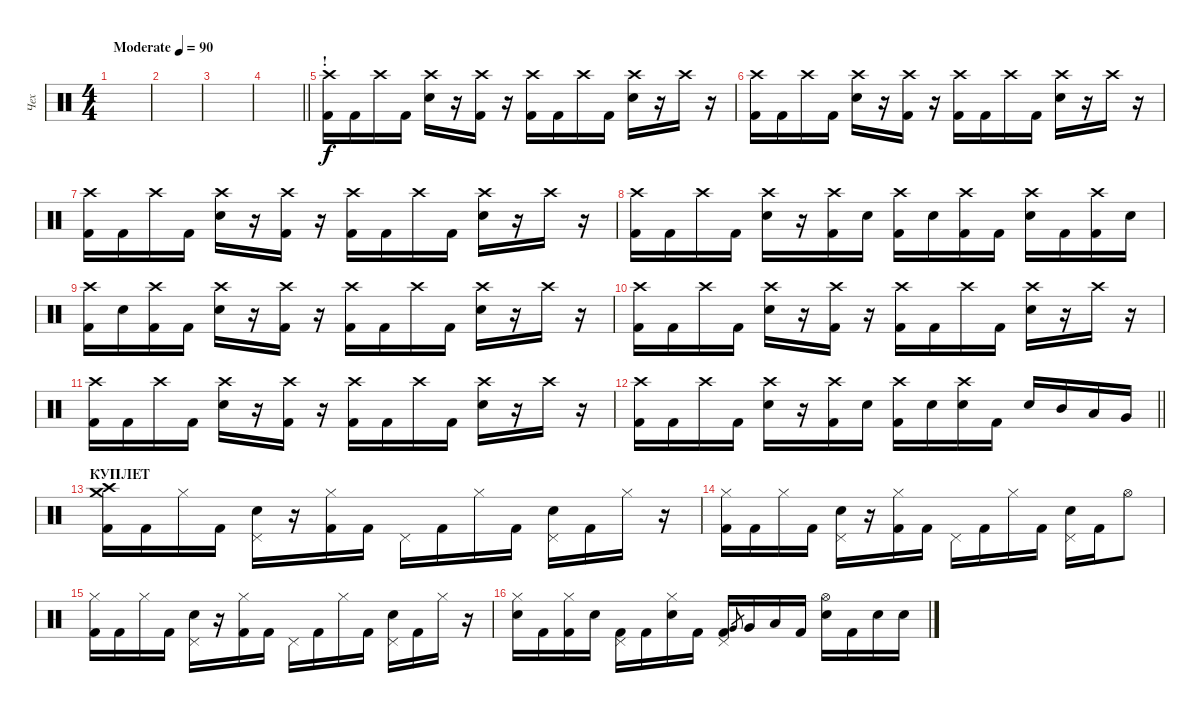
\track ("Чех" "Чех") {instrument percussion}
\staff {score}
\articulation defaults
\ts (4 4)
\tempo (90 "Moderate")
\clef neutral
\ks c
|
|
|
\barLineRight lightlight
|
\section ("" "!")
("Crash high (hit)" "Kick (hit) 2").16 "Kick (hit) 2".16 "Crash high (hit)".16 "Kick (hit) 2".16 ("Crash high (hit)" "Snare (hit) 2").16 r.16 ("Crash high (hit)" "Kick (hit) 2").16 r.16 ("Crash high (hit)" "Kick (hit) 2").16 "Kick (hit) 2".16 "Crash high (hit)".16 "Kick (hit) 2".16 ("Crash high (hit)" "Snare (hit) 2").16 r.16 "Crash high (hit)".16 r.16 |
("Crash high (hit)" "Kick (hit) 2").16 "Kick (hit) 2".16 "Crash high (hit)".16 "Kick (hit) 2".16 ("Crash high (hit)" "Snare (hit) 2").16 r.16 ("Crash high (hit)" "Kick (hit) 2").16 r.16 ("Crash high (hit)" "Kick (hit) 2").16 "Kick (hit) 2".16 "Crash high (hit)".16 "Kick (hit) 2".16 ("Crash high (hit)" "Snare (hit) 2").16 r.16 "Crash high (hit)".16 r.16 |
("Crash high (hit)" "Kick (hit) 2").16 "Kick (hit) 2".16 "Crash high (hit)".16 "Kick (hit) 2".16 ("Crash high (hit)" "Snare (hit) 2").16 r.16 ("Crash high (hit)" "Kick (hit) 2").16 r.16 ("Crash high (hit)" "Kick (hit) 2").16 "Kick (hit) 2".16 "Crash high (hit)".16 "Kick (hit) 2".16 ("Crash high (hit)" "Snare (hit) 2").16 r.16 "Crash high (hit)".16 r.16 |
("Crash high (hit)" "Kick (hit) 2").16 "Kick (hit) 2".16 "Crash high (hit)".16 "Kick (hit) 2".16 ("Crash high (hit)" "Snare (hit) 2").16 r.16 ("Crash high (hit)" "Kick (hit) 2").16 "Snare (hit) 2".16 ("Crash high (hit)" "Kick (hit) 2").16 "Snare (hit) 2".16 ("Crash high (hit)" "Kick (hit) 2").16 "Kick (hit) 2".16 ("Crash high (hit)" "Snare (hit) 2").16 "Kick (hit) 2".16 ("Crash high (hit)" "Kick (hit) 2").16 "Snare (hit) 2".16 |
("Crash high (hit)" "Kick (hit) 2").16 "Snare (hit) 2".16 ("Crash high (hit)" "Kick (hit) 2").16 "Kick (hit) 2".16 ("Crash high (hit)" "Snare (hit) 2").16 r.16 ("Crash high (hit)" "Kick (hit) 2").16 r.16 ("Crash high (hit)" "Kick (hit) 2").16 "Kick (hit) 2".16 "Crash high (hit)".16 "Kick (hit) 2".16 ("Crash high (hit)" "Snare (hit) 2").16 r.16 "Crash high (hit)".16 r.16 |
("Crash high (hit)" "Kick (hit) 2").16 "Kick (hit) 2".16 "Crash high (hit)".16 "Kick (hit) 2".16 ("Crash high (hit)" "Snare (hit) 2").16 r.16 ("Crash high (hit)" "Kick (hit) 2").16 r.16 ("Crash high (hit)" "Kick (hit) 2").16 "Kick (hit) 2".16 "Crash high (hit)".16 "Kick (hit) 2".16 ("Crash high (hit)" "Snare (hit) 2").16 r.16 "Crash high (hit)".16 r.16 |
("Crash high (hit)" "Kick (hit) 2").16 "Kick (hit) 2".16 "Crash high (hit)".16 "Kick (hit) 2".16 ("Crash high (hit)" "Snare (hit) 2").16 r.16 ("Crash high (hit)" "Kick (hit) 2").16 r.16 ("Crash high (hit)" "Kick (hit) 2").16 "Kick (hit) 2".16 "Crash high (hit)".16 "Kick (hit) 2".16 ("Crash high (hit)" "Snare (hit) 2").16 r.16 "Crash high (hit)".16 r.16 |
\barLineRight lightlight
("Crash high (hit)" "Kick (hit) 2").16 "Kick (hit) 2".16 "Crash high (hit)".16 "Kick (hit) 2".16 ("Crash high (hit)" "Snare (hit) 2").16 r.16 ("Crash high (hit)" "Kick (hit) 2").16 "Snare (hit) 2".16 ("Crash high (hit)" "Kick (hit) 2").16 "Snare (hit) 2".16 ("Crash high (hit)" "Snare (hit) 2").16 "Kick (hit) 2".16 "Snare (hit) 2".16 "Mid Tom (hit)".16 "Low Tom (hit)".16 "Very Low Tom (hit)".16 |
\section ("" "КУПЛЕТ")
("Crash medium (hit)" "Crash high (hit)" "Kick (hit) 2").16 "Kick (hit) 2".16 "Hi-Hat (closed)".16 "Kick (hit) 2".16 ("Pedal Hi-Hat (hit)" "Snare (hit) 2").16 r.16 ("Hi-Hat (closed)" "Kick (hit) 2").16 "Kick (hit) 2".16 "Pedal Hi-Hat (hit)".16 "Kick (hit) 2".16 "Hi-Hat (closed)".16 "Kick (hit) 2".16 ("Pedal Hi-Hat (hit)" "Snare (hit) 2").16 "Kick (hit) 2".16 "Hi-Hat (closed)".16 r.16 |
("Hi-Hat (closed)" "Kick (hit) 2").16 "Kick (hit) 2".16 "Hi-Hat (closed)".16 "Kick (hit) 2".16 ("Pedal Hi-Hat (hit)" "Snare (hit) 2").16 r.16 ("Hi-Hat (closed)" "Kick (hit) 2").16 "Kick (hit) 2".16 "Pedal Hi-Hat (hit)".16 "Kick (hit) 2".16 "Hi-Hat (closed)".16 "Kick (hit) 2".16 ("Pedal Hi-Hat (hit)" "Snare (hit) 2").16 "Kick (hit) 2".16 "Hi-Hat (open)".8 |
("Hi-Hat (closed)" "Kick (hit) 2").16 "Kick (hit) 2".16 "Hi-Hat (closed)".16 "Kick (hit) 2".16 ("Pedal Hi-Hat (hit)" "Snare (hit) 2").16 r.16 ("Hi-Hat (closed)" "Kick (hit) 2").16 "Kick (hit) 2".16 "Pedal Hi-Hat (hit)".16 "Kick (hit) 2".16 "Hi-Hat (closed)".16 "Kick (hit) 2".16 ("Pedal Hi-Hat (hit)" "Snare (hit) 2").16 "Kick (hit) 2".16 "Hi-Hat (closed)".16 r.16 |
("Hi-Hat (closed)" "Snare (hit) 2").16 "Kick (hit) 2".16 ("Hi-Hat (closed)" "Kick (hit) 2").16 "Snare (hit) 2".16 ("Pedal Hi-Hat (hit)" "Kick (hit) 2").16 "Kick (hit) 2".16 ("Hi-Hat (closed)" "Snare (hit) 2").16 "Kick (hit) 2".16 ("Pedal Hi-Hat (hit)" "Kick (hit) 2").16 "Very Low Tom (hit)".8{gr} "Very Low Tom (hit)".16 "Low Tom (hit)".16 "Kick (hit) 2".16 ("Hi-Hat (open)" "Snare (hit) 2").16 "Kick (hit) 2".16 "Snare (hit) 2".16 "Snare (hit) 2".16
